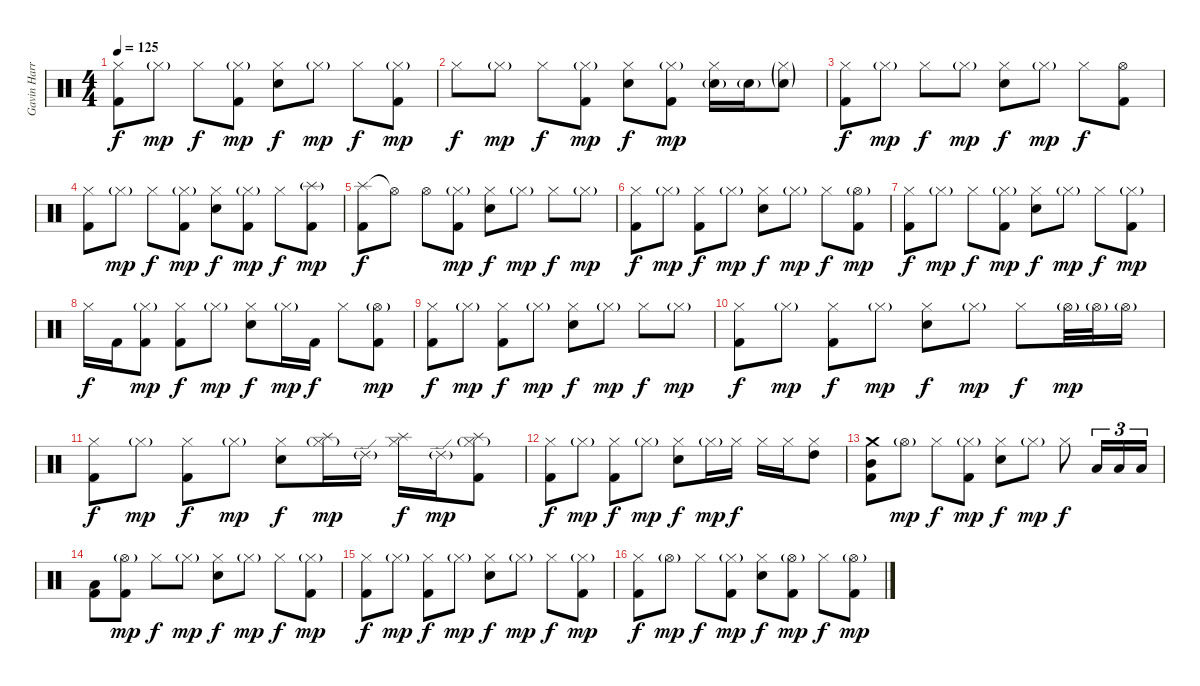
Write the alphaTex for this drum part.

\track ("Gavin Harrison" "Gavin Harr") {instrument percussion}
\staff {score}
\articulation defaults
\ts (4 4)
\tempo 125
\clef neutral
\ks c
("Hi-Hat (closed)" "Kick (hit) 2").8{dy f} "Hi-Hat (closed)"{g}.8{dy mp} "Hi-Hat (closed)".8{dy f} ("Hi-Hat (closed)"{g} "Kick (hit) 2").8{dy mp} ("Hi-Hat (closed)" "Electric Snare (hit)").8{dy f} "Hi-Hat (closed)"{g}.8{dy mp} "Hi-Hat (closed)".8{dy f} ("Hi-Hat (closed)"{g} "Kick (hit) 2").8{dy mp} |
"Hi-Hat (closed)".8{dy f} "Hi-Hat (closed)"{g}.8{dy mp} "Hi-Hat (closed)".8{dy f} ("Hi-Hat (closed)"{g} "Kick (hit) 2").8{dy mp} ("Hi-Hat (closed)" "Electric Snare (hit)").8{dy f} ("Hi-Hat (closed)"{g} "Kick (hit) 2").8{dy mp} ("Hi-Hat (closed)" "Electric Snare (hit)"{g}).16 "Electric Snare (hit)"{g}.16 ("Hi-Hat (closed)"{g} "Electric Snare (hit)"{g}).8 |
("Hi-Hat (closed)" "Kick (hit) 2").8{dy f} "Hi-Hat (closed)"{g}.8{dy mp} "Hi-Hat (closed)".8{dy f} "Hi-Hat (closed)"{g}.8{dy mp} ("Hi-Hat (closed)" "Electric Snare (hit)").8{dy f} "Hi-Hat (closed)"{g}.8{dy mp} "Hi-Hat (closed)".8{dy f} ("Hi-Hat (open)" "Kick (hit) 2").8 |
("Hi-Hat (closed)" "Kick (hit) 2").8 "Hi-Hat (closed)"{g}.8{dy mp} "Hi-Hat (closed)".8{dy f} ("Hi-Hat (closed)"{g} "Kick (hit) 2").8{dy mp} ("Hi-Hat (closed)" "Electric Snare (hit)").8{dy f} ("Hi-Hat (closed)"{g} "Kick (hit) 2").8{dy mp} "Hi-Hat (closed)".8{dy f} ("Splash (hit)"{g} "Kick (hit) 2").8{dy mp} |
("Splash (hit)" "Kick (hit) 2").8{dy f} "Hi-Hat (open)"{t}.8 "Hi-Hat (open)".8 ("Hi-Hat (closed)"{g} "Kick (hit) 2").8{dy mp} ("Hi-Hat (closed)" "Electric Snare (hit)").8{dy f} "Hi-Hat (closed)"{g}.8{dy mp} "Hi-Hat (closed)".8{dy f} "Hi-Hat (closed)"{g}.8{dy mp} |
("Hi-Hat (closed)" "Kick (hit) 2").8{dy f} "Hi-Hat (closed)"{g}.8{dy mp} ("Hi-Hat (closed)" "Kick (hit) 2").8{dy f} "Hi-Hat (closed)"{g}.8{dy mp} ("Hi-Hat (closed)" "Electric Snare (hit)").8{dy f} "Hi-Hat (closed)"{g}.8{dy mp} "Hi-Hat (closed)".8{dy f} ("Hi-Hat (open)"{g} "Kick (hit) 2").8{dy mp} |
("Hi-Hat (closed)" "Kick (hit) 2").8{dy f} "Hi-Hat (closed)"{g}.8{dy mp} "Hi-Hat (closed)".8{dy f} ("Hi-Hat (closed)"{g} "Kick (hit) 2").8{dy mp} ("Hi-Hat (closed)" "Electric Snare (hit)").8{dy f} "Hi-Hat (closed)"{g}.8{dy mp} "Hi-Hat (closed)".8{dy f} ("Hi-Hat (closed)"{g} "Kick (hit) 2").8{dy mp} |
"Hi-Hat (closed)".16{dy f} "Kick (hit) 2".16 ("Hi-Hat (closed)"{g} "Kick (hit) 2").8{dy mp} ("Hi-Hat (closed)" "Kick (hit) 2").8{dy f} "Hi-Hat (closed)"{g}.8{dy mp} ("Hi-Hat (closed)" "Electric Snare (hit)").8{dy f} "Hi-Hat (closed)"{g}.16{dy mp} "Kick (hit) 2".16{dy f} "Hi-Hat (closed)".8 ("Hi-Hat (open)"{g} "Kick (hit) 2").8{dy mp} |
("Hi-Hat (closed)" "Kick (hit) 2").8{dy f} "Hi-Hat (closed)"{g}.8{dy mp} ("Hi-Hat (closed)" "Kick (hit) 2").8{dy f} "Hi-Hat (closed)"{g}.8{dy mp} ("Hi-Hat (closed)" "Electric Snare (hit)").8{dy f} "Hi-Hat (closed)"{g}.8{dy mp} "Hi-Hat (closed)".8{dy f} "Hi-Hat (closed)"{g}.8{dy mp} |
("Hi-Hat (closed)" "Kick (hit) 2").8{dy f} "Hi-Hat (closed)"{g}.8{dy mp} ("Hi-Hat (closed)" "Kick (hit) 2").8{dy f} "Hi-Hat (closed)"{g}.8{dy mp} ("Hi-Hat (closed)" "Electric Snare (hit)").8{dy f} "Hi-Hat (closed)"{g}.8{dy mp} "Hi-Hat (closed)".8{dy f} "Hi-Hat (open)"{g}.32{dy mp} "Hi-Hat (open)"{g}.32 "Hi-Hat (open)"{g}.16 |
("Hi-Hat (closed)" "Kick (hit) 2").8{dy f} "Hi-Hat (closed)"{g}.8{dy mp} ("Hi-Hat (closed)" "Kick (hit) 2").8{dy f} "Hi-Hat (closed)"{g}.8{dy mp} ("Hi-Hat (closed)" "Electric Snare (hit)").8{dy f} ("Splash (hit)" "Hi-Hat (closed)"{g}).16{dy mp} "Ride (edge) 2"{g}.16 ("Splash (hit)" "Hi-Hat (closed)").16{dy f} "Ride (edge) 2"{g}.16{dy mp} ("Splash (hit)" "Hi-Hat (closed)"{g} "Kick (hit) 2").8 |
("Hi-Hat (closed)" "Kick (hit) 2").8{dy f} "Hi-Hat (closed)"{g}.8{dy mp} ("Hi-Hat (closed)" "Kick (hit) 2").8{dy f} "Hi-Hat (closed)"{g}.8{dy mp} ("Hi-Hat (closed)" "Electric Snare (hit)").8{dy f} "Hi-Hat (closed)"{g}.16{dy mp} "Hi-Hat (closed)".16{dy f} "Hi-Hat (closed)".16 "Hi-Hat (closed)".16 ("High Tom (hit)" "Hi-Hat (closed)").8 |
("Mid Tom (hit)" "Crash medium (hit)" "Kick (hit) 2").8 "Hi-Hat (open)"{g}.8{dy mp} "Hi-Hat (closed)".8{dy f} ("Hi-Hat (closed)"{g} "Kick (hit) 2").8{dy mp} ("Hi-Hat (closed)" "Electric Snare (hit)").8{dy f} "Hi-Hat (closed)"{g}.8{dy mp} "Hi-Hat (closed)".8{dy f} "Low Tom (hit)".16{tu (3 2)} "Low Tom (hit)".16{tu (3 2)} "Low Tom (hit)".16{tu (3 2)} |
("Low Tom (hit)" "Kick (hit) 2").8 ("Hi-Hat (open)"{g} "Kick (hit) 2").8{dy mp} "Hi-Hat (closed)".8{dy f} "Hi-Hat (closed)"{g}.8{dy mp} ("Hi-Hat (closed)" "Electric Snare (hit)").8{dy f} "Hi-Hat (closed)"{g}.8{dy mp} "Hi-Hat (closed)".8{dy f} ("Hi-Hat (closed)"{g} "Kick (hit) 2").8{dy mp} |
("Hi-Hat (closed)" "Kick (hit) 2").8{dy f} "Hi-Hat (closed)"{g}.8{dy mp} ("Hi-Hat (closed)" "Kick (hit) 2").8{dy f} "Hi-Hat (closed)"{g}.8{dy mp} ("Hi-Hat (closed)" "Electric Snare (hit)").8{dy f} "Hi-Hat (closed)"{g}.8{dy mp} "Hi-Hat (closed)".8{dy f} ("Hi-Hat (closed)"{g} "Kick (hit) 2").8{dy mp} |
("Hi-Hat (closed)" "Kick (hit) 2").8{dy f} "Hi-Hat (open)"{g}.8{dy mp} "Hi-Hat (closed)".8{dy f} ("Hi-Hat (closed)"{g} "Kick (hit) 2").8{dy mp} ("Hi-Hat (closed)" "Electric Snare (hit)").8{dy f} ("Hi-Hat (open)"{g} "Kick (hit) 2").8{dy mp} "Hi-Hat (closed)".8{dy f} ("Hi-Hat (open)"{g} "Kick (hit) 2").8{dy mp}
